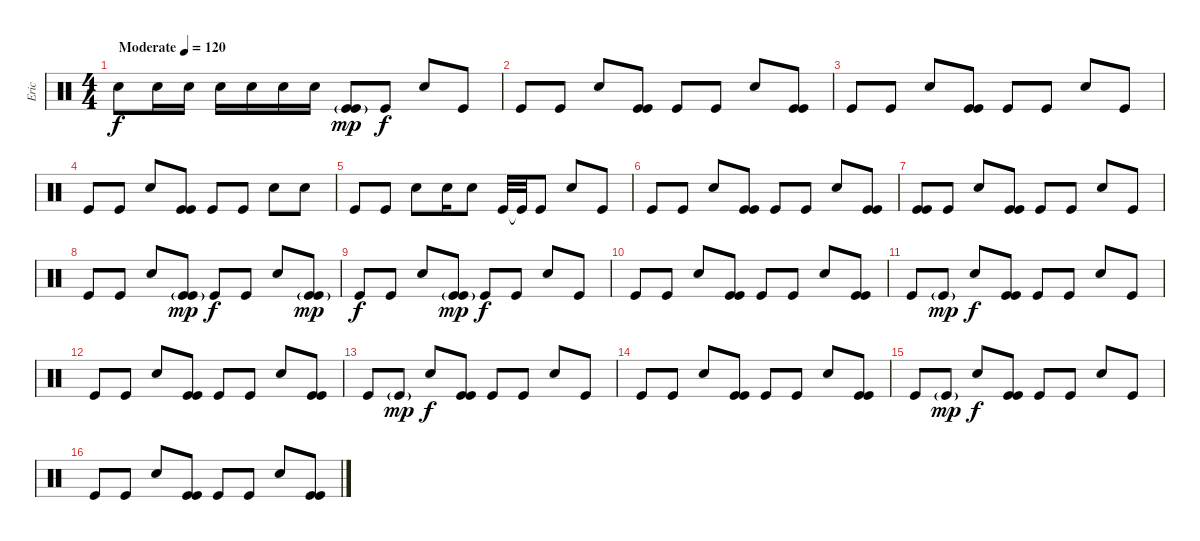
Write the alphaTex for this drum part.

\track ("Eric" "Eric") {instrument percussion}
\staff {score}
\articulation defaults
\ts (4 4)
\tempo (120 "Moderate")
\clef neutral
\ks c "Electric Snare (hit)".8{dy f} "Electric Snare (hit)".16 "Electric Snare (hit)".16 "Electric Snare (hit)".16 "Electric Snare (hit)".16 "Electric Snare (hit)".16 "Electric Snare (hit)".16
("Kick (hit)"{g} "Kick (hit)"{g}).8{dy mp} "Kick (hit)".8{dy f} "Electric Snare (hit)".8 "Kick (hit)".8 |
"Kick (hit)".8 "Kick (hit)".8 "Electric Snare (hit)".8 ("Kick (hit)" "Kick (hit)").8 "Kick (hit)".8 "Kick (hit)".8 "Electric Snare (hit)".8 ("Kick (hit)" "Kick (hit)").8 |
"Kick (hit)".8 "Kick (hit)".8 "Electric Snare (hit)".8 ("Kick (hit)" "Kick (hit)").8 "Kick (hit)".8 "Kick (hit)".8 "Electric Snare (hit)".8 "Kick (hit)".8 |
"Kick (hit)".8 "Kick (hit)".8 "Electric Snare (hit)".8 ("Kick (hit)" "Kick (hit)").8 "Kick (hit)".8 "Kick (hit)".8 "Electric Snare (hit)".8 "Electric Snare (hit)".8 |
"Kick (hit)".8 "Kick (hit)".8 "Electric Snare (hit)".8 "Electric Snare (hit)".16 "Electric Snare (hit)".8 "Kick (hit)".32 "Kick (hit)"{t}.32 "Kick (hit)".8 "Electric Snare (hit)".8 "Kick (hit)".8 |
"Kick (hit)".8 "Kick (hit)".8 "Electric Snare (hit)".8 ("Kick (hit)" "Kick (hit)").8 "Kick (hit)".8 "Kick (hit)".8 "Electric Snare (hit)".8 ("Kick (hit)" "Kick (hit)").8 |
("Kick (hit)" "Kick (hit)").8 "Kick (hit)".8 "Electric Snare (hit)".8 ("Kick (hit)" "Kick (hit)").8 "Kick (hit)".8 "Kick (hit)".8 "Electric Snare (hit)".8 "Kick (hit)".8 |
"Kick (hit)".8 "Kick (hit)".8 "Electric Snare (hit)".8 ("Kick (hit)"{g} "Kick (hit)"{g}).8{dy mp} "Kick (hit)".8{dy f} "Kick (hit)".8 "Electric Snare (hit)".8 ("Kick (hit)"{g} "Kick (hit)"{g}).8{dy mp} |
"Kick (hit)".8{dy f} "Kick (hit)".8 "Electric Snare (hit)".8 ("Kick (hit)"{g} "Kick (hit)"{g}).8{dy mp} "Kick (hit)".8{dy f} "Kick (hit)".8 "Electric Snare (hit)".8 "Kick (hit)".8 |
"Kick (hit)".8 "Kick (hit)".8 "Electric Snare (hit)".8 ("Kick (hit)" "Kick (hit)").8 "Kick (hit)".8 "Kick (hit)".8 "Electric Snare (hit)".8 ("Kick (hit)" "Kick (hit)").8 |
"Kick (hit)".8 "Kick (hit)"{g}.8{dy mp} "Electric Snare (hit)".8{dy f} ("Kick (hit)" "Kick (hit)").8 "Kick (hit)".8 "Kick (hit)".8 "Electric Snare (hit)".8 "Kick (hit)".8 |
"Kick (hit)".8 "Kick (hit)".8 "Electric Snare (hit)".8 ("Kick (hit)" "Kick (hit)").8 "Kick (hit)".8 "Kick (hit)".8 "Electric Snare (hit)".8 ("Kick (hit)" "Kick (hit)").8 |
"Kick (hit)".8 "Kick (hit)"{g}.8{dy mp} "Electric Snare (hit)".8{dy f} ("Kick (hit)" "Kick (hit)").8 "Kick (hit)".8 "Kick (hit)".8 "Electric Snare (hit)".8 "Kick (hit)".8 |
"Kick (hit)".8 "Kick (hit)".8 "Electric Snare (hit)".8 ("Kick (hit)" "Kick (hit)").8 "Kick (hit)".8 "Kick (hit)".8 "Electric Snare (hit)".8 ("Kick (hit)" "Kick (hit)").8 |
"Kick (hit)".8 "Kick (hit)"{g}.8{dy mp} "Electric Snare (hit)".8{dy f} ("Kick (hit)" "Kick (hit)").8 "Kick (hit)".8 "Kick (hit)".8 "Electric Snare (hit)".8 "Kick (hit)".8 |
"Kick (hit)".8 "Kick (hit)".8 "Electric Snare (hit)".8 ("Kick (hit)" "Kick (hit)").8 "Kick (hit)".8 "Kick (hit)".8 "Electric Snare (hit)".8 ("Kick (hit)" "Kick (hit)").8
